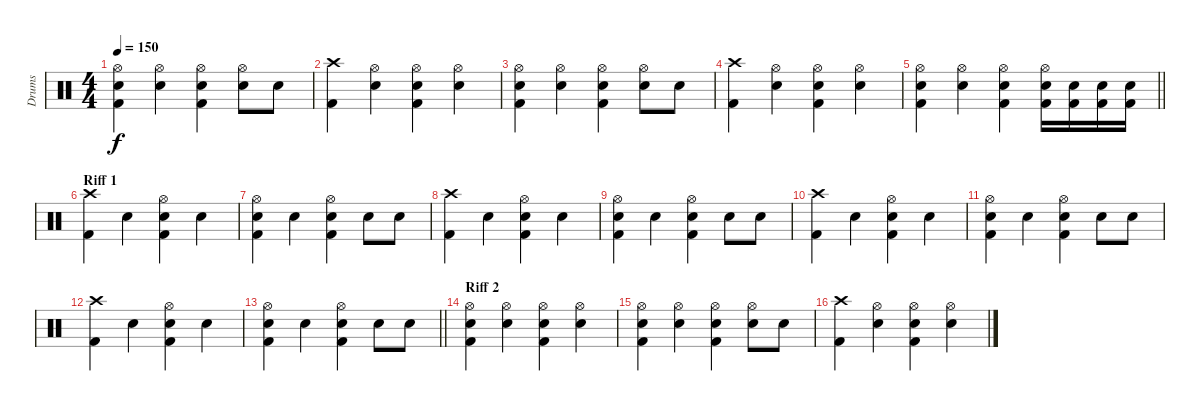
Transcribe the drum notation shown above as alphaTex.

\track ("Drums" "Drums") {instrument percussion}
\staff
\articulation defaults
\ts (4 4)
\tempo 150
\clef neutral
\ks c
("Hi-Hat (open)" "Snare (hit) 2" "Kick (hit) 2").4{dy f} ("Hi-Hat (open)" "Snare (hit) 2").4 ("Hi-Hat (open)" "Snare (hit) 2" "Kick (hit) 2").4 ("Hi-Hat (open)" "Snare (hit) 2").8 "Snare (hit) 2".8 |
("Crash high (hit)" "Kick (hit) 2").4 ("Hi-Hat (open)" "Snare (hit) 2").4 ("Hi-Hat (open)" "Snare (hit) 2" "Kick (hit) 2").4 ("Hi-Hat (open)" "Snare (hit) 2").4 |
("Hi-Hat (open)" "Snare (hit) 2" "Kick (hit) 2").4 ("Hi-Hat (open)" "Snare (hit) 2").4 ("Hi-Hat (open)" "Snare (hit) 2" "Kick (hit) 2").4 ("Hi-Hat (open)" "Snare (hit) 2").8 "Snare (hit) 2".8 |
("Crash high (hit)" "Kick (hit) 2").4 ("Hi-Hat (open)" "Snare (hit) 2").4 ("Hi-Hat (open)" "Snare (hit) 2" "Kick (hit) 2").4 ("Hi-Hat (open)" "Snare (hit) 2").4 |
\barLineRight lightlight
("Hi-Hat (open)" "Snare (hit) 2" "Kick (hit) 2").4 ("Hi-Hat (open)" "Snare (hit) 2").4 ("Hi-Hat (open)" "Snare (hit) 2" "Kick (hit) 2").4 ("Hi-Hat (open)" "Snare (hit) 2" "Kick (hit) 2").16 ("Snare (hit) 2" "Kick (hit) 2").16 ("Snare (hit) 2" "Kick (hit) 2").16 ("Snare (hit) 2" "Kick (hit) 2").16 |
\section ("" "Riff 1")
("Crash high (hit)" "Kick (hit) 2").4 "Snare (hit) 2".4 ("Hi-Hat (open)" "Snare (hit) 2" "Kick (hit) 2").4 "Snare (hit) 2".4 |
("Hi-Hat (open)" "Snare (hit) 2" "Kick (hit) 2").4 "Snare (hit) 2".4 ("Hi-Hat (open)" "Snare (hit) 2" "Kick (hit) 2").4 "Snare (hit) 2".8 "Snare (hit) 2".8 |
("Crash high (hit)" "Kick (hit) 2").4 "Snare (hit) 2".4 ("Hi-Hat (open)" "Snare (hit) 2" "Kick (hit) 2").4 "Snare (hit) 2".4 |
("Hi-Hat (open)" "Snare (hit) 2" "Kick (hit) 2").4 "Snare (hit) 2".4 ("Hi-Hat (open)" "Snare (hit) 2" "Kick (hit) 2").4 "Snare (hit) 2".8 "Snare (hit) 2".8 |
("Crash high (hit)" "Kick (hit) 2").4 "Snare (hit) 2".4 ("Hi-Hat (open)" "Snare (hit) 2" "Kick (hit) 2").4 "Snare (hit) 2".4 |
("Hi-Hat (open)" "Snare (hit) 2" "Kick (hit) 2").4 "Snare (hit) 2".4 ("Hi-Hat (open)" "Snare (hit) 2" "Kick (hit) 2").4 "Snare (hit) 2".8 "Snare (hit) 2".8 |
("Crash high (hit)" "Kick (hit) 2").4 "Snare (hit) 2".4 ("Hi-Hat (open)" "Snare (hit) 2" "Kick (hit) 2").4 "Snare (hit) 2".4 |
\barLineRight lightlight
("Hi-Hat (open)" "Snare (hit) 2" "Kick (hit) 2").4 "Snare (hit) 2".4 ("Hi-Hat (open)" "Snare (hit) 2" "Kick (hit) 2").4 "Snare (hit) 2".8 "Snare (hit) 2".8 |
\section ("" "Riff 2")
("Hi-Hat (open)" "Snare (hit) 2" "Kick (hit) 2").4 ("Hi-Hat (open)" "Snare (hit) 2").4 ("Hi-Hat (open)" "Snare (hit) 2" "Kick (hit) 2").4 ("Hi-Hat (open)" "Snare (hit) 2").4 |
("Hi-Hat (open)" "Snare (hit) 2" "Kick (hit) 2").4 ("Hi-Hat (open)" "Snare (hit) 2").4 ("Hi-Hat (open)" "Snare (hit) 2" "Kick (hit) 2").4 ("Hi-Hat (open)" "Snare (hit) 2").8 "Snare (hit) 2".8 |
("Crash high (hit)" "Kick (hit) 2").4 ("Hi-Hat (open)" "Snare (hit) 2").4 ("Hi-Hat (open)" "Snare (hit) 2" "Kick (hit) 2").4 ("Hi-Hat (open)" "Snare (hit) 2").4
